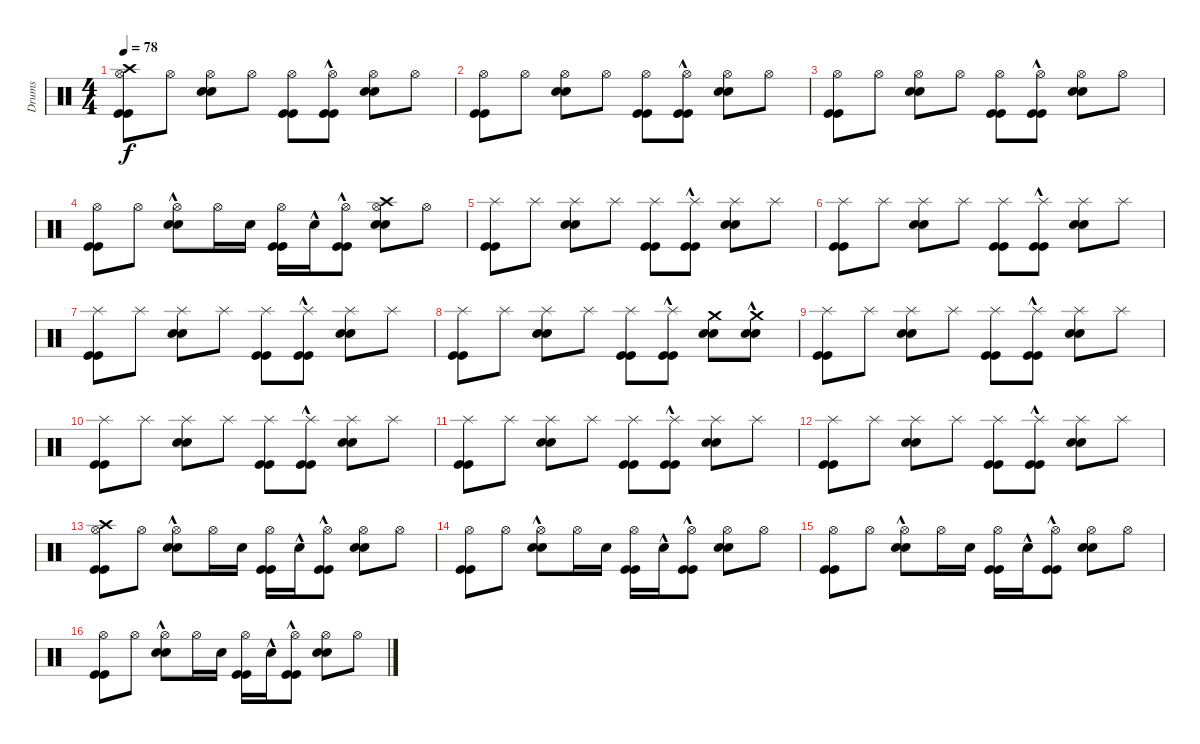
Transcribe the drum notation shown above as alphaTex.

\track ("Drums" "Drums") {instrument percussion}
\staff {score}
\articulation defaults
\ts (4 4)
\tempo 78
\clef neutral
\ks c
("Kick (hit)" "Kick (hit)" "Hi-Hat (open)" "Crash high (hit)").8{dy f} "Hi-Hat (open)".8 ("Snare (hit) 2" "Snare (hit) 2" "Hi-Hat (open)").8 "Hi-Hat (open)".8 ("Kick (hit)" "Kick (hit)" "Hi-Hat (open)").8 ("Kick (hit)"{hac} "Kick (hit)"{hac} "Hi-Hat (open)").8 ("Snare (hit) 2" "Snare (hit) 2" "Hi-Hat (open)").8 "Hi-Hat (open)".8 |
("Kick (hit)" "Kick (hit)" "Hi-Hat (open)").8 "Hi-Hat (open)".8 ("Snare (hit) 2" "Snare (hit) 2" "Hi-Hat (open)").8 "Hi-Hat (open)".8 ("Kick (hit)" "Kick (hit)" "Hi-Hat (open)").8 ("Kick (hit)"{hac} "Kick (hit)"{hac} "Hi-Hat (open)").8 ("Snare (hit) 2" "Snare (hit) 2" "Hi-Hat (open)").8 "Hi-Hat (open)".8 |
("Kick (hit)" "Kick (hit)" "Hi-Hat (open)").8 "Hi-Hat (open)".8 ("Snare (hit) 2" "Snare (hit) 2" "Hi-Hat (open)").8 "Hi-Hat (open)".8 ("Kick (hit)" "Kick (hit)" "Hi-Hat (open)").8 ("Kick (hit)"{hac} "Kick (hit)"{hac} "Hi-Hat (open)").8 ("Snare (hit) 2" "Snare (hit) 2" "Hi-Hat (open)").8 "Hi-Hat (open)".8 |
("Kick (hit)" "Kick (hit)" "Hi-Hat (open)").8 "Hi-Hat (open)".8 ("Snare (hit) 2"{hac} "Snare (hit) 2"{hac} "Hi-Hat (open)").8 "Hi-Hat (open)".16 "Snare (hit) 2".16 ("Kick (hit)" "Kick (hit)" "Hi-Hat (open)").16 "Snare (hit) 2"{hac}.16 ("Kick (hit)"{hac} "Kick (hit)"{hac} "Hi-Hat (open)").8 ("Snare (hit) 2" "Snare (hit) 2" "Hi-Hat (open)" "Crash high (hit)").8 "Hi-Hat (open)".8 |
("Kick (hit)" "Kick (hit)" "Splash (hit)").8 "Splash (hit)".8 ("Snare (hit) 2" "Snare (hit) 2" "Splash (hit)").8 "Splash (hit)".8 ("Kick (hit)" "Kick (hit)" "Splash (hit)").8 ("Kick (hit)"{hac} "Kick (hit)"{hac} "Splash (hit)").8 ("Snare (hit) 2" "Snare (hit) 2" "Splash (hit)").8 "Splash (hit)".8 |
("Kick (hit)" "Kick (hit)" "Splash (hit)").8 "Splash (hit)".8 ("Snare (hit) 2" "Snare (hit) 2" "Splash (hit)").8 "Splash (hit)".8 ("Kick (hit)" "Kick (hit)" "Splash (hit)").8 ("Kick (hit)"{hac} "Kick (hit)"{hac} "Splash (hit)").8 ("Snare (hit) 2" "Snare (hit) 2" "Splash (hit)").8 "Splash (hit)".8 |
("Kick (hit)" "Kick (hit)" "Splash (hit)").8 "Splash (hit)".8 ("Snare (hit) 2" "Snare (hit) 2" "Splash (hit)").8 "Splash (hit)".8 ("Kick (hit)" "Kick (hit)" "Splash (hit)").8 ("Kick (hit)"{hac} "Kick (hit)"{hac} "Splash (hit)").8 ("Snare (hit) 2" "Snare (hit) 2" "Splash (hit)").8 "Splash (hit)".8 |
("Kick (hit)" "Kick (hit)" "Splash (hit)").8 "Splash (hit)".8 ("Snare (hit) 2" "Snare (hit) 2" "Splash (hit)").8 "Splash (hit)".8 ("Kick (hit)" "Kick (hit)" "Splash (hit)").8 ("Kick (hit)"{hac} "Kick (hit)"{hac} "Splash (hit)").8 ("Snare (hit) 2" "Snare (hit) 2" "Crash medium (hit)").8 ("Snare (hit) 2"{hac} "Snare (hit) 2"{hac} "Crash medium (hit)").8 |
("Kick (hit)" "Kick (hit)" "Splash (hit)").8 "Splash (hit)".8 ("Snare (hit) 2" "Snare (hit) 2" "Splash (hit)").8 "Splash (hit)".8 ("Kick (hit)" "Kick (hit)" "Splash (hit)").8 ("Kick (hit)"{hac} "Kick (hit)"{hac} "Splash (hit)").8 ("Snare (hit) 2" "Snare (hit) 2" "Splash (hit)").8 "Splash (hit)".8 |
("Kick (hit)" "Kick (hit)" "Splash (hit)").8 "Splash (hit)".8 ("Snare (hit) 2" "Snare (hit) 2" "Splash (hit)").8 "Splash (hit)".8 ("Kick (hit)" "Kick (hit)" "Splash (hit)").8 ("Kick (hit)"{hac} "Kick (hit)"{hac} "Splash (hit)").8 ("Snare (hit) 2" "Snare (hit) 2" "Splash (hit)").8 "Splash (hit)".8 |
("Kick (hit)" "Kick (hit)" "Splash (hit)").8 "Splash (hit)".8 ("Snare (hit) 2" "Snare (hit) 2" "Splash (hit)").8 "Splash (hit)".8 ("Kick (hit)" "Kick (hit)" "Splash (hit)").8 ("Kick (hit)"{hac} "Kick (hit)"{hac} "Splash (hit)").8 ("Snare (hit) 2" "Snare (hit) 2" "Splash (hit)").8 "Splash (hit)".8 |
("Kick (hit)" "Kick (hit)" "Splash (hit)").8 "Splash (hit)".8 ("Snare (hit) 2" "Snare (hit) 2" "Splash (hit)").8 "Splash (hit)".8 ("Kick (hit)" "Kick (hit)" "Splash (hit)").8 ("Kick (hit)"{hac} "Kick (hit)"{hac} "Splash (hit)").8 ("Snare (hit) 2" "Snare (hit) 2" "Splash (hit)").8 "Splash (hit)".8 |
("Kick (hit)" "Kick (hit)" "Hi-Hat (open)" "Crash high (hit)").8 "Hi-Hat (open)".8 ("Snare (hit) 2"{hac} "Snare (hit) 2"{hac} "Hi-Hat (open)").8 "Hi-Hat (open)".16 "Snare (hit) 2".16 ("Kick (hit)" "Kick (hit)" "Hi-Hat (open)").16 "Snare (hit) 2"{hac}.16 ("Kick (hit)"{hac} "Kick (hit)"{hac} "Hi-Hat (open)").8 ("Snare (hit) 2" "Snare (hit) 2" "Hi-Hat (open)").8 "Hi-Hat (open)".8 |
("Kick (hit)" "Kick (hit)" "Hi-Hat (open)").8 "Hi-Hat (open)".8 ("Snare (hit) 2"{hac} "Snare (hit) 2"{hac} "Hi-Hat (open)").8 "Hi-Hat (open)".16 "Snare (hit) 2".16 ("Kick (hit)" "Kick (hit)" "Hi-Hat (open)").16 "Snare (hit) 2"{hac}.16 ("Kick (hit)"{hac} "Kick (hit)"{hac} "Hi-Hat (open)").8 ("Snare (hit) 2" "Snare (hit) 2" "Hi-Hat (open)").8 "Hi-Hat (open)".8 |
("Kick (hit)" "Kick (hit)" "Hi-Hat (open)").8 "Hi-Hat (open)".8 ("Snare (hit) 2"{hac} "Snare (hit) 2"{hac} "Hi-Hat (open)").8 "Hi-Hat (open)".16 "Snare (hit) 2".16 ("Kick (hit)" "Kick (hit)" "Hi-Hat (open)").16 "Snare (hit) 2"{hac}.16 ("Kick (hit)"{hac} "Kick (hit)"{hac} "Hi-Hat (open)").8 ("Snare (hit) 2" "Snare (hit) 2" "Hi-Hat (open)").8 "Hi-Hat (open)".8 |
("Kick (hit)" "Kick (hit)" "Hi-Hat (open)").8 "Hi-Hat (open)".8 ("Snare (hit) 2"{hac} "Snare (hit) 2"{hac} "Hi-Hat (open)").8 "Hi-Hat (open)".16 "Snare (hit) 2".16 ("Kick (hit)" "Kick (hit)" "Hi-Hat (open)").16 "Snare (hit) 2"{hac}.16 ("Kick (hit)"{hac} "Kick (hit)"{hac} "Hi-Hat (open)").8 ("Snare (hit) 2" "Snare (hit) 2" "Hi-Hat (open)").8 "Hi-Hat (open)".8
